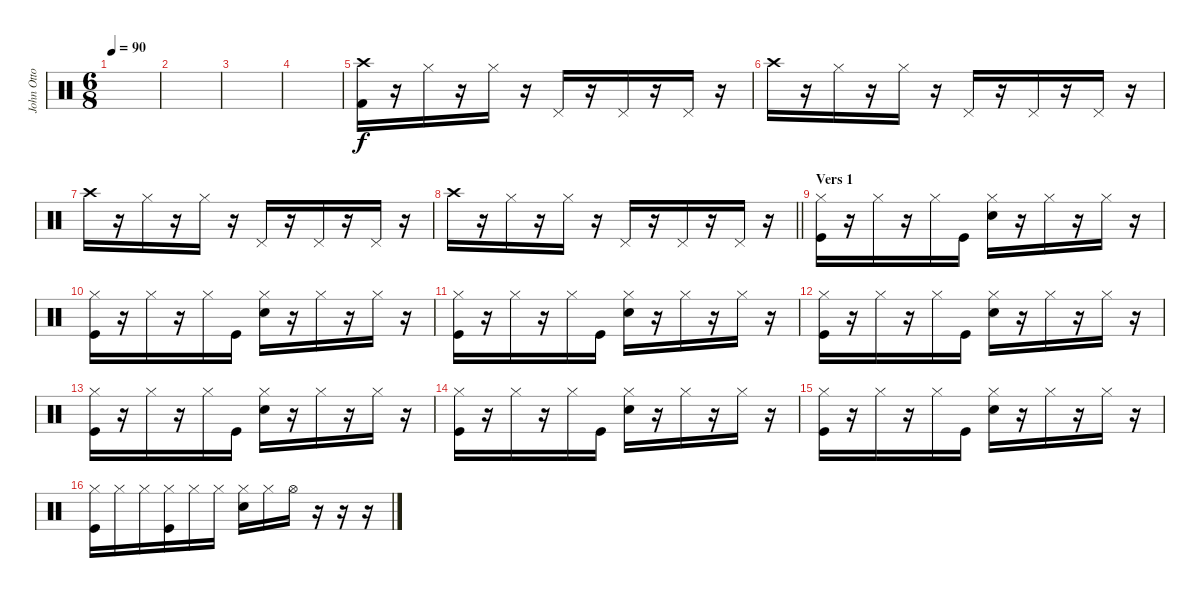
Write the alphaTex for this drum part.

\track ("John Otto" "John Otto") {instrument percussion}
\staff {score}
\articulation defaults
\ts (6 8)
\tempo 90
\clef neutral
\ks c
|
|
|
|
("Crash high (hit)" "Kick (hit) 2").16 r.16 "Hi-Hat (closed)".16 r.16 "Hi-Hat (closed)".16 r.16 "Pedal Hi-Hat (hit)".16 r.16 "Pedal Hi-Hat (hit)".16 r.16 "Pedal Hi-Hat (hit)".16 r.16 |
"Crash high (hit)".16 r.16 "Hi-Hat (closed)".16 r.16 "Hi-Hat (closed)".16 r.16 "Pedal Hi-Hat (hit)".16 r.16 "Pedal Hi-Hat (hit)".16 r.16 "Pedal Hi-Hat (hit)".16 r.16 |
"Crash high (hit)".16 r.16 "Hi-Hat (closed)".16 r.16 "Hi-Hat (closed)".16 r.16 "Pedal Hi-Hat (hit)".16 r.16 "Pedal Hi-Hat (hit)".16 r.16 "Pedal Hi-Hat (hit)".16 r.16 |
\barLineRight lightlight "Crash high (hit)".16
r.16 "Hi-Hat (closed)".16 r.16 "Hi-Hat (closed)".16 r.16 "Pedal Hi-Hat (hit)".16 r.16 "Pedal Hi-Hat (hit)".16 r.16 "Pedal Hi-Hat (hit)".16 r.16 |
\section ("" "Vers 1")
("Hi-Hat (closed)" "Kick (hit)").16 r.16 "Hi-Hat (closed)".16 r.16 "Hi-Hat (closed)".16 "Kick (hit)".16 ("Hi-Hat (closed)" "Electric Snare (hit)").16 r.16 "Hi-Hat (closed)".16 r.16 "Hi-Hat (closed)".16 r.16 |
("Hi-Hat (closed)" "Kick (hit)").16 r.16 "Hi-Hat (closed)".16 r.16 "Hi-Hat (closed)".16 "Kick (hit)".16 ("Hi-Hat (closed)" "Electric Snare (hit)").16 r.16 "Hi-Hat (closed)".16 r.16 "Hi-Hat (closed)".16 r.16 |
("Hi-Hat (closed)" "Kick (hit)").16 r.16 "Hi-Hat (closed)".16 r.16 "Hi-Hat (closed)".16 "Kick (hit)".16 ("Hi-Hat (closed)" "Electric Snare (hit)").16 r.16 "Hi-Hat (closed)".16 r.16 "Hi-Hat (closed)".16 r.16 |
("Hi-Hat (closed)" "Kick (hit)").16 r.16 "Hi-Hat (closed)".16 r.16 "Hi-Hat (closed)".16 "Kick (hit)".16 ("Hi-Hat (closed)" "Electric Snare (hit)").16 r.16 "Hi-Hat (closed)".16 r.16 "Hi-Hat (closed)".16 r.16 |
("Hi-Hat (closed)" "Kick (hit)").16 r.16 "Hi-Hat (closed)".16 r.16 "Hi-Hat (closed)".16 "Kick (hit)".16 ("Hi-Hat (closed)" "Electric Snare (hit)").16 r.16 "Hi-Hat (closed)".16 r.16 "Hi-Hat (closed)".16 r.16 |
("Hi-Hat (closed)" "Kick (hit)").16 r.16 "Hi-Hat (closed)".16 r.16 "Hi-Hat (closed)".16 "Kick (hit)".16 ("Hi-Hat (closed)" "Electric Snare (hit)").16 r.16 "Hi-Hat (closed)".16 r.16 "Hi-Hat (closed)".16 r.16 |
("Hi-Hat (closed)" "Kick (hit)").16 r.16 "Hi-Hat (closed)".16 r.16 "Hi-Hat (closed)".16 "Kick (hit)".16 ("Hi-Hat (closed)" "Electric Snare (hit)").16 r.16 "Hi-Hat (closed)".16 r.16 "Hi-Hat (closed)".16 r.16 |
("Hi-Hat (closed)" "Kick (hit)").16 "Hi-Hat (closed)".16 "Hi-Hat (closed)".16 ("Hi-Hat (closed)" "Kick (hit)").16 "Hi-Hat (closed)".16 "Hi-Hat (closed)".16 ("Hi-Hat (closed)" "Electric Snare (hit)").16 "Hi-Hat (closed)".16 "Hi-Hat (open)".16 r.16 r.16 r.16
